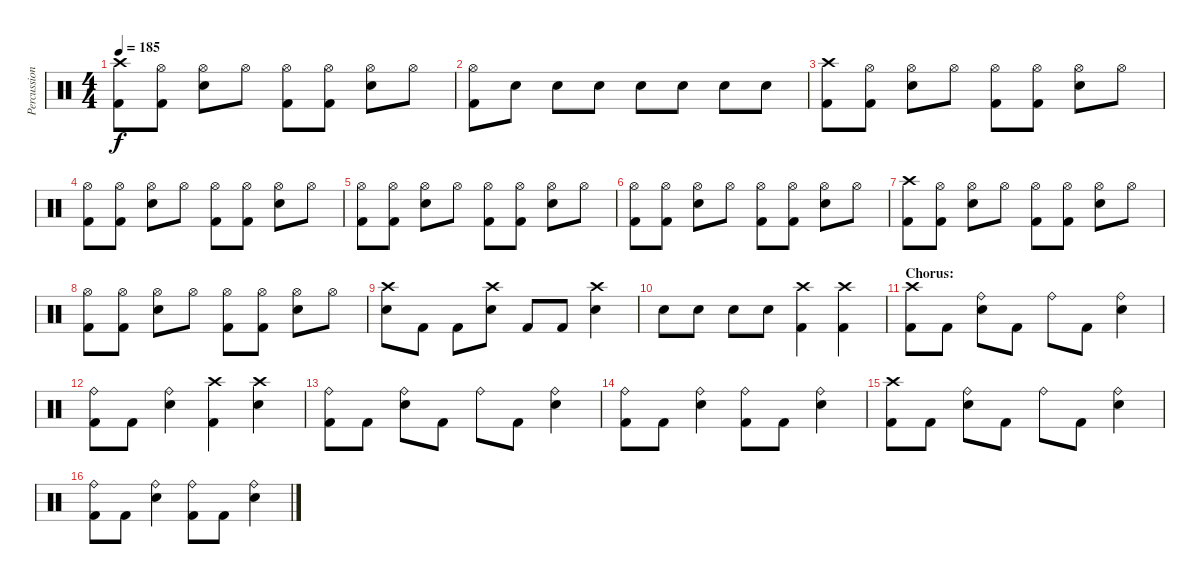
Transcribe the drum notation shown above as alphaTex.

\track ("Percussion" "Percussion") {instrument percussion}
\staff {score}
\articulation defaults
\ts (4 4)
\tempo 185
\clef neutral
\ks c
("Crash high (hit)" "Kick (hit) 2").8{dy f} ("Hi-Hat (open)" "Kick (hit) 2").8 ("Hi-Hat (open)" "Snare (hit) 2").8 "Hi-Hat (open)".8 ("Hi-Hat (open)" "Kick (hit) 2").8 ("Hi-Hat (open)" "Kick (hit) 2").8 ("Hi-Hat (open)" "Snare (hit) 2").8 "Hi-Hat (open)".8 |
("Hi-Hat (open)" "Kick (hit) 2").8 "Snare (hit) 2".8 "Snare (hit) 2".8 "Snare (hit) 2".8 "Snare (hit) 2".8 "Snare (hit) 2".8 "Snare (hit) 2".8 "Snare (hit) 2".8 |
("Crash high (hit)" "Kick (hit) 2").8 ("Hi-Hat (open)" "Kick (hit) 2").8 ("Hi-Hat (open)" "Snare (hit) 2").8 "Hi-Hat (open)".8 ("Hi-Hat (open)" "Kick (hit) 2").8 ("Hi-Hat (open)" "Kick (hit) 2").8 ("Hi-Hat (open)" "Snare (hit) 2").8 "Hi-Hat (open)".8 |
("Hi-Hat (open)" "Kick (hit) 2").8 ("Hi-Hat (open)" "Kick (hit) 2").8 ("Hi-Hat (open)" "Snare (hit) 2").8 "Hi-Hat (open)".8 ("Hi-Hat (open)" "Kick (hit) 2").8 ("Hi-Hat (open)" "Kick (hit) 2").8 ("Hi-Hat (open)" "Snare (hit) 2").8 "Hi-Hat (open)".8 |
("Hi-Hat (open)" "Kick (hit) 2").8 ("Hi-Hat (open)" "Kick (hit) 2").8 ("Hi-Hat (open)" "Snare (hit) 2").8 "Hi-Hat (open)".8 ("Hi-Hat (open)" "Kick (hit) 2").8 ("Hi-Hat (open)" "Kick (hit) 2").8 ("Hi-Hat (open)" "Snare (hit) 2").8 "Hi-Hat (open)".8 |
("Hi-Hat (open)" "Kick (hit) 2").8 ("Hi-Hat (open)" "Kick (hit) 2").8 ("Hi-Hat (open)" "Snare (hit) 2").8 "Hi-Hat (open)".8 ("Hi-Hat (open)" "Kick (hit) 2").8 ("Hi-Hat (open)" "Kick (hit) 2").8 ("Hi-Hat (open)" "Snare (hit) 2").8 "Hi-Hat (open)".8 |
("Crash high (hit)" "Kick (hit) 2").8 ("Hi-Hat (open)" "Kick (hit) 2").8 ("Hi-Hat (open)" "Snare (hit) 2").8 "Hi-Hat (open)".8 ("Hi-Hat (open)" "Kick (hit) 2").8 ("Hi-Hat (open)" "Kick (hit) 2").8 ("Hi-Hat (open)" "Snare (hit) 2").8 "Hi-Hat (open)".8 |
("Hi-Hat (open)" "Kick (hit) 2").8 ("Hi-Hat (open)" "Kick (hit) 2").8 ("Hi-Hat (open)" "Snare (hit) 2").8 "Hi-Hat (open)".8 ("Hi-Hat (open)" "Kick (hit) 2").8 ("Hi-Hat (open)" "Kick (hit) 2").8 ("Hi-Hat (open)" "Snare (hit) 2").8 "Hi-Hat (open)".8 |
("Crash high (hit)" "Snare (hit) 2").8 "Kick (hit) 2".8 "Kick (hit) 2".8 ("Crash high (hit)" "Snare (hit) 2").8 "Kick (hit) 2".8 "Kick (hit) 2".8 ("Crash high (hit)" "Snare (hit) 2").4 |
"Snare (hit) 2".8 "Snare (hit) 2".8 "Snare (hit) 2".8 "Snare (hit) 2".8 ("Crash high (hit)" "Kick (hit) 2").4 ("Crash high (hit)" "Kick (hit) 2").4 |
\section ("" "Chorus:")
("Crash high (hit)" "Kick (hit) 2").8 "Kick (hit) 2".8 ("Ride (bell)" "Snare (hit) 2").8 "Kick (hit) 2".8 "Ride (bell)".8 "Kick (hit) 2".8 ("Ride (bell)" "Snare (hit) 2").4 |
("Ride (bell)" "Kick (hit) 2").8 "Kick (hit) 2".8 ("Ride (bell)" "Snare (hit) 2").4 ("Crash high (hit)" "Kick (hit) 2").4 ("Crash high (hit)" "Snare (hit) 2").4 |
("Ride (bell)" "Kick (hit) 2").8 "Kick (hit) 2".8 ("Ride (bell)" "Snare (hit) 2").8 "Kick (hit) 2".8 "Ride (bell)".8 "Kick (hit) 2".8 ("Ride (bell)" "Snare (hit) 2").4 |
("Ride (bell)" "Kick (hit) 2").8 "Kick (hit) 2".8 ("Ride (bell)" "Snare (hit) 2").4 ("Ride (bell)" "Kick (hit) 2").8 "Kick (hit) 2".8 ("Ride (bell)" "Snare (hit) 2").4 |
("Crash high (hit)" "Kick (hit) 2").8 "Kick (hit) 2".8 ("Ride (bell)" "Snare (hit) 2").8 "Kick (hit) 2".8 "Ride (bell)".8 "Kick (hit) 2".8 ("Ride (bell)" "Snare (hit) 2").4 |
("Ride (bell)" "Kick (hit) 2").8 "Kick (hit) 2".8 ("Ride (bell)" "Snare (hit) 2").4 ("Ride (bell)" "Kick (hit) 2").8 "Kick (hit) 2".8 ("Ride (bell)" "Snare (hit) 2").4
